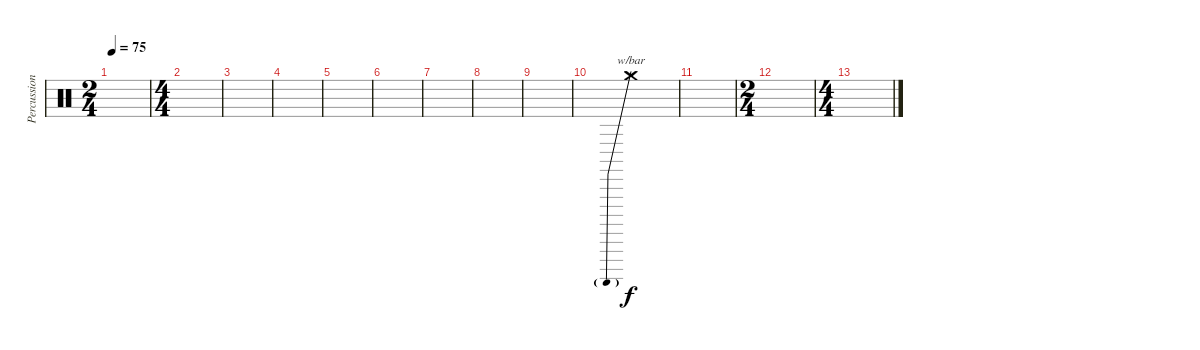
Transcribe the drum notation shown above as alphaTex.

\track ("Percussion" "Percussion") {instrument percussion}
\staff {score}
\articulation defaults
\ts (2 4)
\tempo 75
\clef neutral
\ks c
|
\ts (4 4)
|
|
|
|
|
|
|
|
"Crash medium (hit)".1{tbe (predive default 0 -24 60 -24)} |
|
\ts (2 4)
|
\ts (4 4)
